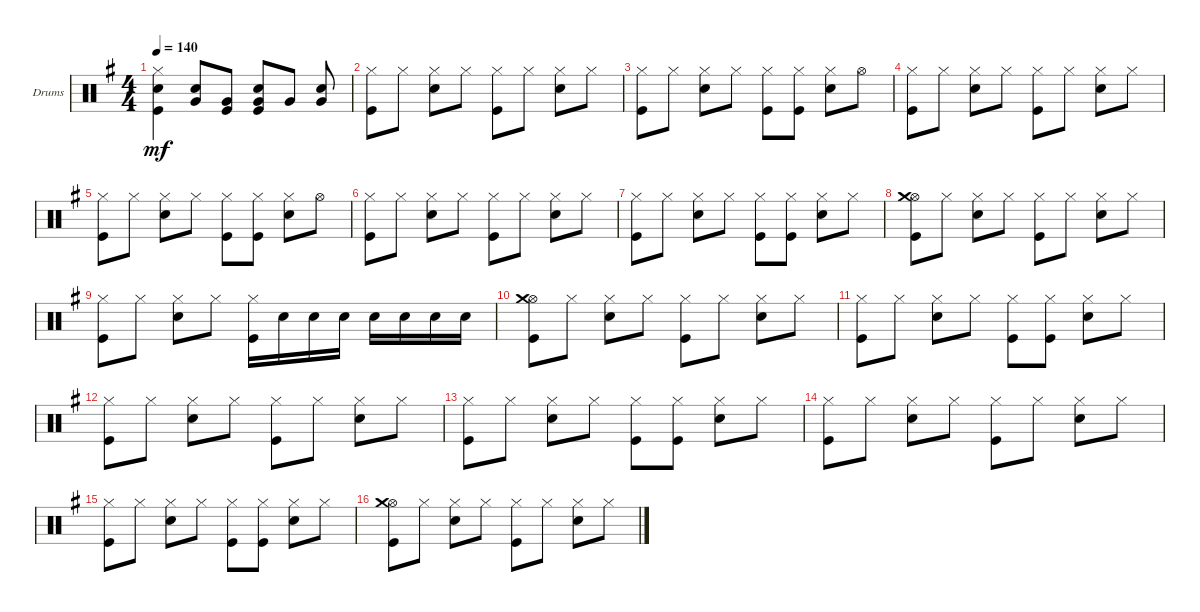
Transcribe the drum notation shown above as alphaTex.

\defaultSystemsLayout 4
\bracketExtendMode groupsimilarinstruments
\firstSystemTrackNameOrientation horizontal
\otherSystemsTrackNameOrientation horizontal
\track ("Drumkit" "Drums") {instrument percussion}
\staff {score}
\articulation defaults
\ts (4 4)
\tempo 140
\clef neutral
\ks g
("Kick (hit)" "Snare (hit) 2" "Hi-Hat (closed)").4{dy mf} ("Snare (hit) 2" "Very Low Tom (hit)").8 ("Very Low Tom (hit)" "Kick (hit)").8 ("Kick (hit)" "Very Low Tom (hit)" "Snare (hit) 2").8 "Very Low Tom (hit)".8 ("Very Low Tom (hit)" "Snare (hit) 2").8 |
("Hi-Hat (closed)" "Kick (hit)").8 "Hi-Hat (closed)".8 ("Hi-Hat (closed)" "Snare (hit) 2").8 "Hi-Hat (closed)".8 ("Hi-Hat (closed)" "Kick (hit)").8 "Hi-Hat (closed)".8 ("Hi-Hat (closed)" "Snare (hit) 2").8 "Hi-Hat (closed)".8 |
("Hi-Hat (closed)" "Kick (hit)").8 "Hi-Hat (closed)".8 ("Hi-Hat (closed)" "Snare (hit) 2").8 "Hi-Hat (closed)".8 ("Hi-Hat (closed)" "Kick (hit)").8 ("Kick (hit)" "Hi-Hat (closed)").8 ("Hi-Hat (closed)" "Snare (hit) 2").8 "Hi-Hat (open)".8 |
("Hi-Hat (closed)" "Kick (hit)").8 "Hi-Hat (closed)".8 ("Hi-Hat (closed)" "Snare (hit) 2").8 "Hi-Hat (closed)".8 ("Hi-Hat (closed)" "Kick (hit)").8 "Hi-Hat (closed)".8 ("Hi-Hat (closed)" "Snare (hit) 2").8 "Hi-Hat (closed)".8 |
("Hi-Hat (closed)" "Kick (hit)").8 "Hi-Hat (closed)".8 ("Hi-Hat (closed)" "Snare (hit) 2").8 "Hi-Hat (closed)".8 ("Hi-Hat (closed)" "Kick (hit)").8 ("Kick (hit)" "Hi-Hat (closed)").8 ("Hi-Hat (closed)" "Snare (hit) 2").8 "Hi-Hat (open)".8 |
("Hi-Hat (closed)" "Kick (hit)").8 "Hi-Hat (closed)".8 ("Hi-Hat (closed)" "Snare (hit) 2").8 "Hi-Hat (closed)".8 ("Hi-Hat (closed)" "Kick (hit)").8 "Hi-Hat (closed)".8 ("Hi-Hat (closed)" "Snare (hit) 2").8 "Hi-Hat (closed)".8 |
("Hi-Hat (closed)" "Kick (hit)").8 "Hi-Hat (closed)".8 ("Hi-Hat (closed)" "Snare (hit) 2").8 "Hi-Hat (closed)".8 ("Hi-Hat (closed)" "Kick (hit)").8 ("Kick (hit)" "Hi-Hat (closed)").8 ("Hi-Hat (closed)" "Snare (hit) 2").8 "Hi-Hat (closed)".8 |
("Hi-Hat (open)" "Crash medium (hit)" "Kick (hit)").8 "Hi-Hat (closed)".8 ("Hi-Hat (closed)" "Snare (hit) 2").8 "Hi-Hat (closed)".8 ("Kick (hit)" "Hi-Hat (closed)").8 "Hi-Hat (closed)".8 ("Hi-Hat (closed)" "Snare (hit) 2").8 "Hi-Hat (closed)".8 |
("Hi-Hat (closed)" "Kick (hit)").8 "Hi-Hat (closed)".8 ("Hi-Hat (closed)" "Snare (hit) 2").8 "Hi-Hat (closed)".8 ("Hi-Hat (closed)" "Kick (hit)").16 "Snare (hit) 2".16 "Snare (hit) 2".16 "Snare (hit) 2".16 "Snare (hit) 2".16 "Snare (hit) 2".16 "Snare (hit) 2".16 "Snare (hit) 2".16 |
("Hi-Hat (open)" "Crash medium (hit)" "Kick (hit)").8 "Hi-Hat (closed)".8 ("Hi-Hat (closed)" "Snare (hit) 2").8 "Hi-Hat (closed)".8 ("Hi-Hat (closed)" "Kick (hit)").8 "Hi-Hat (closed)".8 ("Hi-Hat (closed)" "Snare (hit) 2").8 "Hi-Hat (closed)".8 |
("Hi-Hat (closed)" "Kick (hit)").8 "Hi-Hat (closed)".8 ("Hi-Hat (closed)" "Snare (hit) 2").8 "Hi-Hat (closed)".8 ("Hi-Hat (closed)" "Kick (hit)").8 ("Kick (hit)" "Hi-Hat (closed)").8 ("Hi-Hat (closed)" "Snare (hit) 2").8 "Hi-Hat (closed)".8 |
("Hi-Hat (closed)" "Kick (hit)").8 "Hi-Hat (closed)".8 ("Hi-Hat (closed)" "Snare (hit) 2").8 "Hi-Hat (closed)".8 ("Hi-Hat (closed)" "Kick (hit)").8 "Hi-Hat (closed)".8 ("Hi-Hat (closed)" "Snare (hit) 2").8 "Hi-Hat (closed)".8 |
("Hi-Hat (closed)" "Kick (hit)").8 "Hi-Hat (closed)".8 ("Hi-Hat (closed)" "Snare (hit) 2").8 "Hi-Hat (closed)".8 ("Hi-Hat (closed)" "Kick (hit)").8 ("Kick (hit)" "Hi-Hat (closed)").8 ("Hi-Hat (closed)" "Snare (hit) 2").8 "Hi-Hat (closed)".8 |
("Hi-Hat (closed)" "Kick (hit)").8 "Hi-Hat (closed)".8 ("Hi-Hat (closed)" "Snare (hit) 2").8 "Hi-Hat (closed)".8 ("Kick (hit)" "Hi-Hat (closed)").8 "Hi-Hat (closed)".8 ("Hi-Hat (closed)" "Snare (hit) 2").8 "Hi-Hat (closed)".8 |
("Hi-Hat (closed)" "Kick (hit)").8 "Hi-Hat (closed)".8 ("Hi-Hat (closed)" "Snare (hit) 2").8 "Hi-Hat (closed)".8 ("Kick (hit)" "Hi-Hat (closed)").8 ("Hi-Hat (closed)" "Kick (hit)").8 ("Hi-Hat (closed)" "Snare (hit) 2").8 "Hi-Hat (closed)".8 |
("Kick (hit)" "Hi-Hat (open)" "Crash medium (hit)").8 "Hi-Hat (closed)".8 ("Hi-Hat (closed)" "Snare (hit) 2").8 "Hi-Hat (closed)".8 ("Hi-Hat (closed)" "Kick (hit)").8 "Hi-Hat (closed)".8 ("Hi-Hat (closed)" "Snare (hit) 2").8 "Hi-Hat (closed)".8
